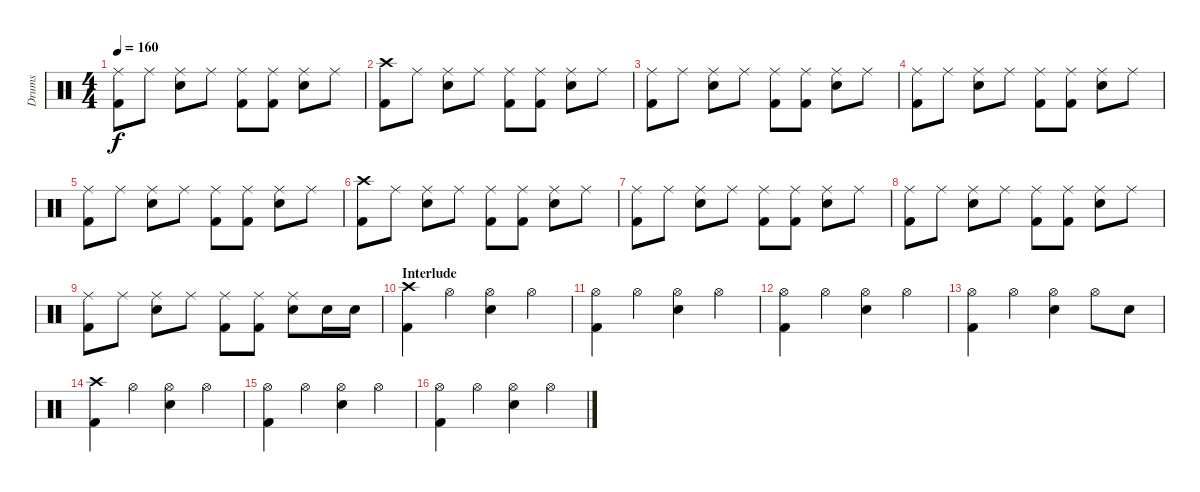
\track ("Drums" "Drums") {instrument percussion}
\staff {score}
\articulation defaults
\ts (4 4)
\tempo 160
\clef neutral
\ks c
("Ride (middle)" "Kick (hit) 2").8{dy f} "Ride (middle)".8 ("Ride (middle)" "Electric Snare (hit)").8 "Ride (middle)".8 ("Ride (middle)" "Kick (hit) 2").8 ("Ride (middle)" "Kick (hit) 2").8 ("Ride (middle)" "Electric Snare (hit)").8 "Ride (middle)".8 |
("Crash high (hit)" "Kick (hit) 2").8 "Ride (middle)".8 ("Ride (middle)" "Electric Snare (hit)").8 "Ride (middle)".8 ("Ride (middle)" "Kick (hit) 2").8 ("Ride (middle)" "Kick (hit) 2").8 ("Ride (middle)" "Electric Snare (hit)").8 "Ride (middle)".8 |
("Ride (middle)" "Kick (hit) 2").8 "Ride (middle)".8 ("Ride (middle)" "Electric Snare (hit)").8 "Ride (middle)".8 ("Ride (middle)" "Kick (hit) 2").8 ("Ride (middle)" "Kick (hit) 2").8 ("Ride (middle)" "Electric Snare (hit)").8 "Ride (middle)".8 |
("Ride (middle)" "Kick (hit) 2").8 "Ride (middle)".8 ("Ride (middle)" "Electric Snare (hit)").8 "Ride (middle)".8 ("Ride (middle)" "Kick (hit) 2").8 ("Ride (middle)" "Kick (hit) 2").8 ("Ride (middle)" "Electric Snare (hit)").8 "Ride (middle)".8 |
("Ride (middle)" "Kick (hit) 2").8 "Ride (middle)".8 ("Ride (middle)" "Electric Snare (hit)").8 "Ride (middle)".8 ("Ride (middle)" "Kick (hit) 2").8 ("Ride (middle)" "Kick (hit) 2").8 ("Ride (middle)" "Electric Snare (hit)").8 "Ride (middle)".8 |
("Crash high (hit)" "Kick (hit) 2").8 "Ride (middle)".8 ("Ride (middle)" "Electric Snare (hit)").8 "Ride (middle)".8 ("Ride (middle)" "Kick (hit) 2").8 ("Ride (middle)" "Kick (hit) 2").8 ("Ride (middle)" "Electric Snare (hit)").8 "Ride (middle)".8 |
("Ride (middle)" "Kick (hit) 2").8 "Ride (middle)".8 ("Ride (middle)" "Electric Snare (hit)").8 "Ride (middle)".8 ("Ride (middle)" "Kick (hit) 2").8 ("Ride (middle)" "Kick (hit) 2").8 ("Ride (middle)" "Electric Snare (hit)").8 "Ride (middle)".8 |
("Ride (middle)" "Kick (hit) 2").8 "Ride (middle)".8 ("Ride (middle)" "Electric Snare (hit)").8 "Ride (middle)".8 ("Ride (middle)" "Kick (hit) 2").8 ("Ride (middle)" "Kick (hit) 2").8 ("Ride (middle)" "Electric Snare (hit)").8 "Ride (middle)".8 |
("Ride (middle)" "Kick (hit) 2").8 "Ride (middle)".8 ("Ride (middle)" "Electric Snare (hit)").8 "Ride (middle)".8 ("Ride (middle)" "Kick (hit) 2").8 ("Ride (middle)" "Kick (hit) 2").8 ("Ride (middle)" "Electric Snare (hit)").8 "Electric Snare (hit)".16 "Electric Snare (hit)".16 |
\section ("" "Interlude")
("Crash high (hit)" "Kick (hit) 2").4 "Hi-Hat (open)".4 ("Hi-Hat (open)" "Electric Snare (hit)").4 "Hi-Hat (open)".4 |
("Hi-Hat (open)" "Kick (hit) 2").4 "Hi-Hat (open)".4 ("Hi-Hat (open)" "Electric Snare (hit)").4 "Hi-Hat (open)".4 |
("Hi-Hat (open)" "Kick (hit) 2").4 "Hi-Hat (open)".4 ("Hi-Hat (open)" "Electric Snare (hit)").4 "Hi-Hat (open)".4 |
("Hi-Hat (open)" "Kick (hit) 2").4 "Hi-Hat (open)".4 ("Hi-Hat (open)" "Electric Snare (hit)").4 "Hi-Hat (open)".8 "Electric Snare (hit)".8 |
("Crash high (hit)" "Kick (hit) 2").4 "Hi-Hat (open)".4 ("Hi-Hat (open)" "Electric Snare (hit)").4 "Hi-Hat (open)".4 |
("Hi-Hat (open)" "Kick (hit) 2").4 "Hi-Hat (open)".4 ("Hi-Hat (open)" "Electric Snare (hit)").4 "Hi-Hat (open)".4 |
("Hi-Hat (open)" "Kick (hit) 2").4 "Hi-Hat (open)".4 ("Hi-Hat (open)" "Electric Snare (hit)").4 "Hi-Hat (open)".4
